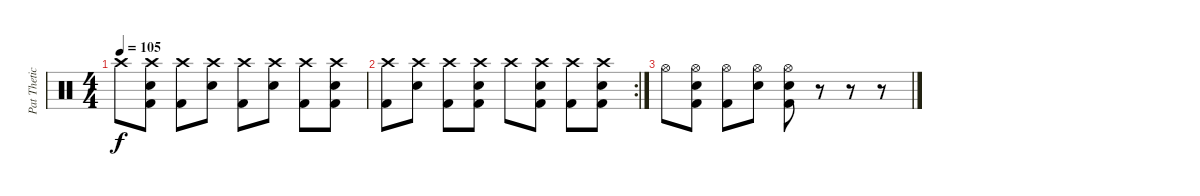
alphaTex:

\track ("Pat Thetic" "Pat Thetic") {instrument percussion}
\staff {score}
\articulation defaults
\ts (4 4)
\tempo 105
\clef neutral
\ks c "Crash high (hit)".8{dy f}
("Crash high (hit)" "Snare (hit) 2" "Kick (hit) 2").8 ("Crash high (hit)" "Kick (hit) 2").8 ("Crash high (hit)" "Snare (hit) 2").8 ("Crash high (hit)" "Kick (hit) 2").8 ("Crash high (hit)" "Snare (hit) 2").8 ("Crash high (hit)" "Kick (hit) 2").8 ("Crash high (hit)" "Snare (hit) 2" "Kick (hit) 2").8 |
\rc 2
("Crash high (hit)" "Kick (hit) 2").8 ("Crash high (hit)" "Snare (hit) 2").8 ("Crash high (hit)" "Kick (hit) 2").8 ("Crash high (hit)" "Snare (hit) 2" "Kick (hit) 2").8 "Crash high (hit)".8 ("Crash high (hit)" "Snare (hit) 2" "Kick (hit) 2").8 ("Crash high (hit)" "Kick (hit) 2").8 ("Crash high (hit)" "Snare (hit) 2" "Kick (hit) 2").8 |
"Hi-Hat (open)".8 ("Hi-Hat (open)" "Snare (hit) 2" "Kick (hit) 2").8 ("Hi-Hat (open)" "Kick (hit) 2").8 ("Hi-Hat (open)" "Snare (hit) 2").8 ("Hi-Hat (open)" "Snare (hit) 2" "Kick (hit) 2").8 r.8 r.8 r.8
